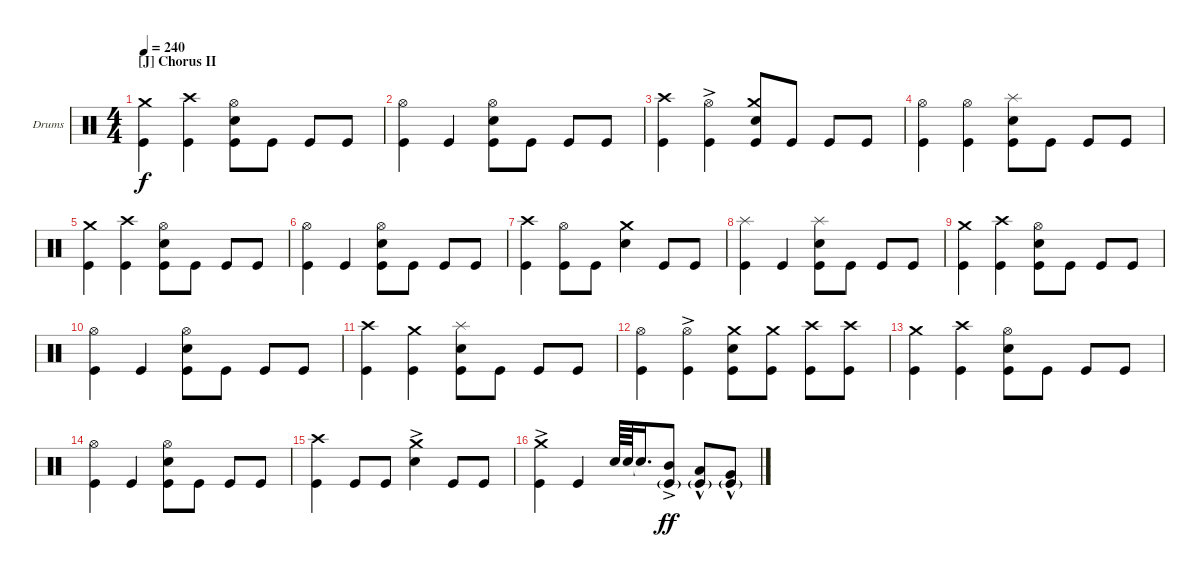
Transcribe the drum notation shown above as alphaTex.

\defaultSystemsLayout 4
\bracketExtendMode groupsimilarinstruments
\firstSystemTrackNameOrientation horizontal
\otherSystemsTrackNameOrientation horizontal
\track ("Drumkit" "Drums") {instrument percussion}
\staff {score}
\articulation defaults
\ts (4 4)
\section ("J" "Chorus II")
\tempo 240
\clef neutral
\ks c
("Kick (hit)" "Crash medium (hit)").4{dy f} ("Crash high (hit)" "Kick (hit)").4 ("Snare (hit) 2" "Kick (hit)" "Hi-Hat (open)").8 "Kick (hit)".8 "Kick (hit)".8 "Kick (hit)".8 |
("Kick (hit)" "Hi-Hat (open)").4 "Kick (hit)".4 ("Kick (hit)" "Snare (hit) 2" "Hi-Hat (open)").8 "Kick (hit)".8 "Kick (hit)".8 "Kick (hit)".8 |
("Crash high (hit)" "Kick (hit)").4 ("Kick (hit)" "Hi-Hat (open)"{ac}).4 ("Snare (hit) 2" "Kick (hit)" "Crash medium (hit)").8 "Kick (hit)".8 "Kick (hit)".8 "Kick (hit)".8 |
("Kick (hit)" "Hi-Hat (open)").4 ("Kick (hit)" "Hi-Hat (open)").4 ("Kick (hit)" "Snare (hit) 2" "Splash (hit)").8 "Kick (hit)".8 "Kick (hit)".8 "Kick (hit)".8 |
("Kick (hit)" "Crash medium (hit)").4 ("Crash high (hit)" "Kick (hit)").4 ("Snare (hit) 2" "Kick (hit)" "Hi-Hat (open)").8 "Kick (hit)".8 "Kick (hit)".8 "Kick (hit)".8 |
("Kick (hit)" "Hi-Hat (open)").4 "Kick (hit)".4 ("Kick (hit)" "Snare (hit) 2" "Hi-Hat (open)").8 "Kick (hit)".8 "Kick (hit)".8 "Kick (hit)".8 |
("Crash high (hit)" "Kick (hit)").4 ("Kick (hit)" "Hi-Hat (open)").8 "Kick (hit)".8 ("Snare (hit) 2" "Crash medium (hit)").4 "Kick (hit)".8 "Kick (hit)".8 |
("Kick (hit)" "Splash (hit)").4 "Kick (hit)".4 ("Kick (hit)" "Snare (hit) 2" "Splash (hit)").8 "Kick (hit)".8 "Kick (hit)".8 "Kick (hit)".8 |
("Kick (hit)" "Crash medium (hit)").4 ("Crash high (hit)" "Kick (hit)").4 ("Snare (hit) 2" "Kick (hit)" "Hi-Hat (open)").8 "Kick (hit)".8 "Kick (hit)".8 "Kick (hit)".8 |
("Kick (hit)" "Hi-Hat (open)").4 "Kick (hit)".4 ("Kick (hit)" "Snare (hit) 2" "Hi-Hat (open)").8 "Kick (hit)".8 "Kick (hit)".8 "Kick (hit)".8 |
("Crash high (hit)" "Kick (hit)").4 ("Kick (hit)" "Crash medium (hit)").4 ("Snare (hit) 2" "Kick (hit)" "Splash (hit)").8 "Kick (hit)".8 "Kick (hit)".8 "Kick (hit)".8 |
("Kick (hit)" "Hi-Hat (open)").4 ("Kick (hit)" "Hi-Hat (open)"{ac}).4 ("Kick (hit)" "Snare (hit) 2" "Crash medium (hit)").8 ("Kick (hit)" "Crash medium (hit)").8 ("Kick (hit)" "Crash high (hit)").8 ("Kick (hit)" "Crash high (hit)").8 |
("Kick (hit)" "Crash medium (hit)").4 ("Crash high (hit)" "Kick (hit)").4 ("Snare (hit) 2" "Kick (hit)" "Hi-Hat (open)").8 "Kick (hit)".8 "Kick (hit)".8 "Kick (hit)".8 |
("Kick (hit)" "Hi-Hat (open)").4 "Kick (hit)".4 ("Kick (hit)" "Snare (hit) 2" "Hi-Hat (open)").8 "Kick (hit)".8 "Kick (hit)".8 "Kick (hit)".8 |
("Kick (hit)" "Crash high (hit)").4 "Kick (hit)".8 "Kick (hit)".8 ("Snare (hit) 2" "Crash medium (hit)"{ac}).4 "Kick (hit)".8 "Kick (hit)".8 |
("Kick (hit)" "Crash medium (hit)"{ac}).4 "Kick (hit)".4 "Snare (hit) 2".64 "Snare (hit) 2".64 "Snare (hit) 2"{t}.16{d} ("Mid Tom (hit)"{ac} "Kick (hit)"{g}).8{dy ff} ("Low Tom (hit)"{hac} "Kick (hit)"{g}).8 ("Very Low Tom (hit)"{hac} "Kick (hit)"{g}).8
